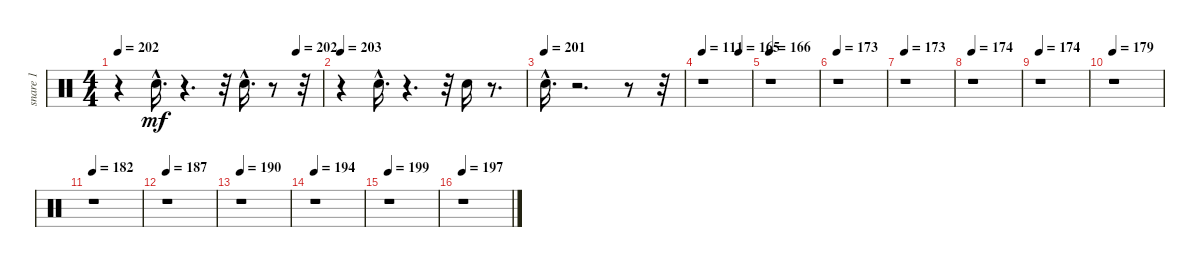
\track ("snare 1" "snare 1") {instrument percussion}
\staff {score}
\articulation defaults
\ts (4 4)
\tempo 202
\tempo (202 0.875)
\clef neutral
\ks c
r.4{dy mf} "Snare (hit) 2"{hac}.16{d} r.4{d} r.32 "Snare (hit) 2"{hac}.16{d} r.8 r.32 |
\tempo 203
r.4 "Snare (hit) 2"{hac}.16{d} r.4{d} r.32 "Snare (hit) 2".16 r.8{d} |
\tempo (201)
"Snare (hit) 2"{hac}.16{d} r.2{d} r.8 r.32 |
\tempo 111
\tempo (165 0.75)
r.1 |
\tempo 166
r.1 |
\tempo 173
r.1 |
\tempo 173
r.1 |
\tempo 174
r.1 |
\tempo 174
r.1 |
\tempo 179
r.1 |
\tempo 182
r.1 |
\tempo 187
r.1 |
\tempo 190
r.1 |
\tempo 194
r.1 |
\tempo 199
r.1 |
\tempo 197
r.1
